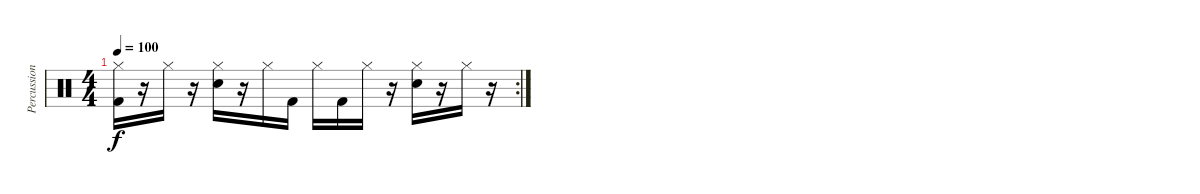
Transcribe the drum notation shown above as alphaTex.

\track ("Percussion" "Percussion") {instrument percussion}
\staff {score}
\articulation defaults
\rc 2
\ts (4 4)
\tempo 100
\clef neutral
\ks c
("Hi-Hat (closed)" "Kick (hit) 2").16{dy f} r.16 "Hi-Hat (closed)".16 r.16 ("Hi-Hat (closed)" "Electric Snare (hit)").16 r.16 "Hi-Hat (closed)".16 "Kick (hit) 2".16 "Hi-Hat (closed)".16 "Kick (hit) 2".16 "Hi-Hat (closed)".16 r.16 ("Hi-Hat (closed)" "Electric Snare (hit)").16 r.16 "Hi-Hat (closed)".16 r.16
